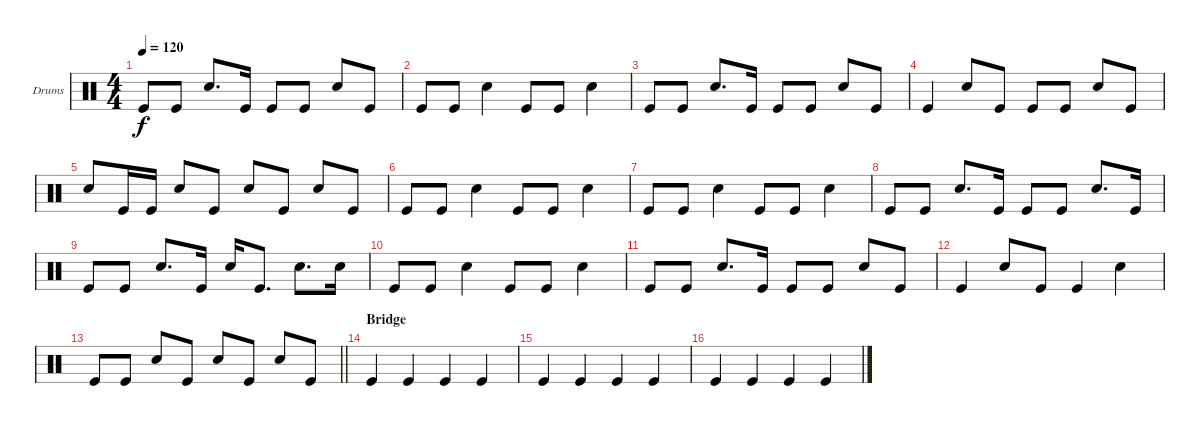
\bracketExtendMode groupsimilarinstruments
\firstSystemTrackNameOrientation horizontal
\otherSystemsTrackNameOrientation horizontal
\track ("Drumkit" "Drums") {instrument percussion}
\staff {score}
\articulation defaults
\ts (4 4)
\tempo 120
\clef neutral
\ks c "Kick (hit)".8{dy f} "Kick (hit)".8 "Snare (hit) 2".8{d} "Kick (hit)".16 "Kick (hit)".8 "Kick (hit)".8 "Snare (hit) 2".8 "Kick (hit)".8
|
"Kick (hit)".8 "Kick (hit)".8 "Snare (hit) 2".4 "Kick (hit)".8 "Kick (hit)".8 "Snare (hit) 2".4 |
"Kick (hit)".8 "Kick (hit)".8 "Snare (hit) 2".8{d} "Kick (hit)".16 "Kick (hit)".8 "Kick (hit)".8 "Snare (hit) 2".8 "Kick (hit)".8 |
"Kick (hit)".4 "Snare (hit) 2".8 "Kick (hit)".8 "Kick (hit)".8 "Kick (hit)".8 "Snare (hit) 2".8 "Kick (hit)".8 |
"Snare (hit) 2".8 "Kick (hit)".16 "Kick (hit)".16 "Snare (hit) 2".8 "Kick (hit)".8 "Snare (hit) 2".8 "Kick (hit)".8 "Snare (hit) 2".8 "Kick (hit)".8 |
"Kick (hit)".8 "Kick (hit)".8 "Snare (hit) 2".4 "Kick (hit)".8 "Kick (hit)".8 "Snare (hit) 2".4 |
"Kick (hit)".8 "Kick (hit)".8 "Snare (hit) 2".4 "Kick (hit)".8 "Kick (hit)".8 "Snare (hit) 2".4 |
"Kick (hit)".8 "Kick (hit)".8 "Snare (hit) 2".8{d} "Kick (hit)".16 "Kick (hit)".8 "Kick (hit)".8 "Snare (hit) 2".8{d} "Kick (hit)".16 |
"Kick (hit)".8 "Kick (hit)".8 "Snare (hit) 2".8{d} "Kick (hit)".16 "Snare (hit) 2".16 "Kick (hit)".8{d} "Snare (hit) 2".8{d} "Snare (hit) 2".16 |
"Kick (hit)".8 "Kick (hit)".8 "Snare (hit) 2".4 "Kick (hit)".8 "Kick (hit)".8 "Snare (hit) 2".4 |
"Kick (hit)".8 "Kick (hit)".8 "Snare (hit) 2".8{d} "Kick (hit)".16 "Kick (hit)".8 "Kick (hit)".8 "Snare (hit) 2".8 "Kick (hit)".8 |
"Kick (hit)".4 "Snare (hit) 2".8 "Kick (hit)".8 "Kick (hit)".4 "Snare (hit) 2".4 |
\barLineRight lightlight "Kick (hit)".8 "Kick (hit)".8 "Snare (hit) 2".8 "Kick (hit)".8 "Snare (hit) 2".8 "Kick (hit)".8 "Snare (hit) 2".8 "Kick (hit)".8
|
\section ("" "Bridge")
"Kick (hit)".4 "Kick (hit)".4 "Kick (hit)".4 "Kick (hit)".4 |
"Kick (hit)".4 "Kick (hit)".4 "Kick (hit)".4 "Kick (hit)".4 |
"Kick (hit)".4 "Kick (hit)".4 "Kick (hit)".4 "Kick (hit)".4
